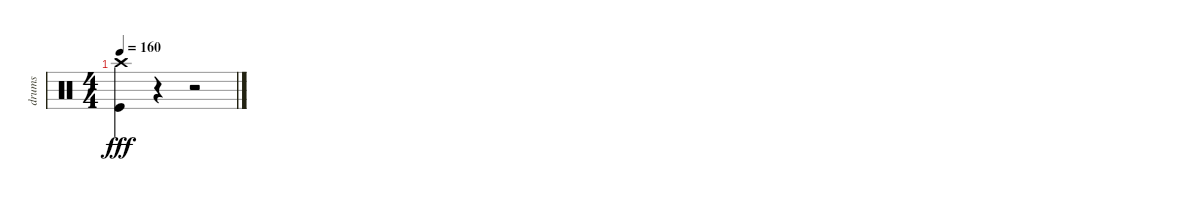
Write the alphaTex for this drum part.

\track ("drums" "drums") {instrument percussion}
\staff {score}
\articulation defaults
\ts (4 4)
\tempo 160
\clef neutral
\ks c
("Crash high (hit)" "Kick (hit)").4{dy fff} r.4{volume 0} r.2
